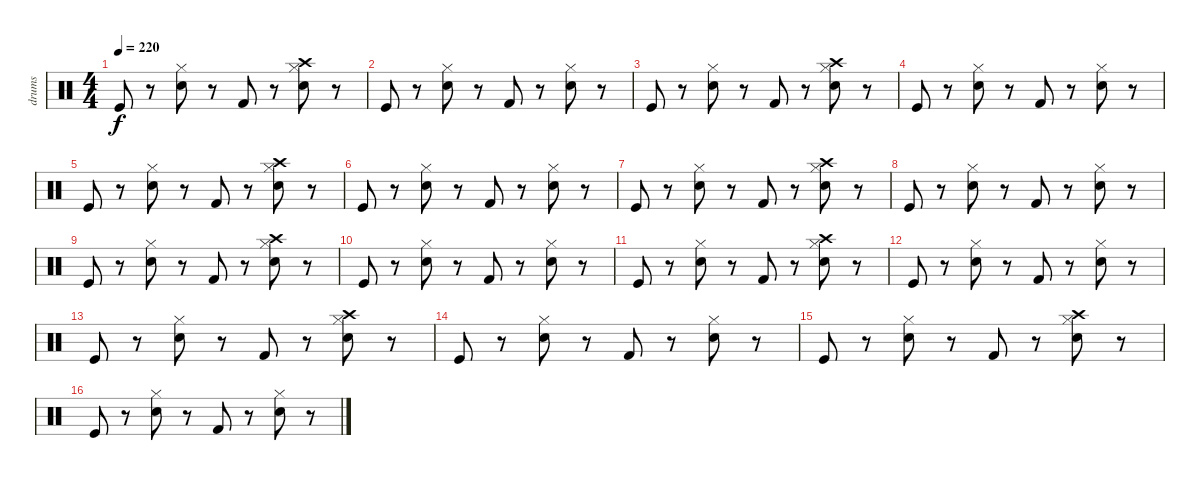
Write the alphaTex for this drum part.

\track ("drums" "drums") {instrument percussion}
\staff {score}
\articulation defaults
\ts (4 4)
\tempo 220
\clef neutral
\ks c "Kick (hit)".8{dy f}
r.8 ("Electric Snare (hit)" "Hi-Hat (closed)").8 r.8 "Kick (hit) 2".8 r.8 ("Electric Snare (hit)" "Hi-Hat (closed)" "Crash high (hit)").8 r.8 |
"Kick (hit)".8 r.8 ("Electric Snare (hit)" "Hi-Hat (closed)").8 r.8 "Kick (hit) 2".8 r.8 ("Electric Snare (hit)" "Hi-Hat (closed)").8 r.8 |
"Kick (hit)".8 r.8 ("Electric Snare (hit)" "Hi-Hat (closed)").8 r.8 "Kick (hit) 2".8 r.8 ("Electric Snare (hit)" "Hi-Hat (closed)" "Crash high (hit)").8 r.8 |
"Kick (hit)".8 r.8 ("Electric Snare (hit)" "Hi-Hat (closed)").8 r.8 "Kick (hit) 2".8 r.8 ("Electric Snare (hit)" "Hi-Hat (closed)").8 r.8 |
"Kick (hit)".8 r.8 ("Electric Snare (hit)" "Hi-Hat (closed)").8 r.8 "Kick (hit) 2".8 r.8 ("Electric Snare (hit)" "Hi-Hat (closed)" "Crash high (hit)").8 r.8 |
"Kick (hit)".8 r.8 ("Electric Snare (hit)" "Hi-Hat (closed)").8 r.8 "Kick (hit) 2".8 r.8 ("Electric Snare (hit)" "Hi-Hat (closed)").8 r.8 |
"Kick (hit)".8 r.8 ("Electric Snare (hit)" "Hi-Hat (closed)").8 r.8 "Kick (hit) 2".8 r.8 ("Electric Snare (hit)" "Hi-Hat (closed)" "Crash high (hit)").8 r.8 |
"Kick (hit)".8 r.8 ("Electric Snare (hit)" "Hi-Hat (closed)").8 r.8 "Kick (hit) 2".8 r.8 ("Electric Snare (hit)" "Hi-Hat (closed)").8 r.8 |
"Kick (hit)".8 r.8 ("Electric Snare (hit)" "Hi-Hat (closed)").8 r.8 "Kick (hit) 2".8 r.8 ("Electric Snare (hit)" "Hi-Hat (closed)" "Crash high (hit)").8 r.8 |
"Kick (hit)".8 r.8 ("Electric Snare (hit)" "Hi-Hat (closed)").8 r.8 "Kick (hit) 2".8 r.8 ("Electric Snare (hit)" "Hi-Hat (closed)").8 r.8 |
"Kick (hit)".8 r.8 ("Electric Snare (hit)" "Hi-Hat (closed)").8 r.8 "Kick (hit) 2".8 r.8 ("Electric Snare (hit)" "Hi-Hat (closed)" "Crash high (hit)").8 r.8 |
"Kick (hit)".8 r.8 ("Electric Snare (hit)" "Hi-Hat (closed)").8 r.8 "Kick (hit) 2".8 r.8 ("Electric Snare (hit)" "Hi-Hat (closed)").8 r.8 |
"Kick (hit)".8 r.8 ("Electric Snare (hit)" "Hi-Hat (closed)").8 r.8 "Kick (hit) 2".8 r.8 ("Electric Snare (hit)" "Hi-Hat (closed)" "Crash high (hit)").8 r.8 |
"Kick (hit)".8 r.8 ("Electric Snare (hit)" "Hi-Hat (closed)").8 r.8 "Kick (hit) 2".8 r.8 ("Electric Snare (hit)" "Hi-Hat (closed)").8 r.8 |
"Kick (hit)".8 r.8 ("Electric Snare (hit)" "Hi-Hat (closed)").8 r.8 "Kick (hit) 2".8 r.8 ("Electric Snare (hit)" "Hi-Hat (closed)" "Crash high (hit)").8 r.8 |
"Kick (hit)".8 r.8 ("Electric Snare (hit)" "Hi-Hat (closed)").8 r.8 "Kick (hit) 2".8 r.8 ("Electric Snare (hit)" "Hi-Hat (closed)").8 r.8
